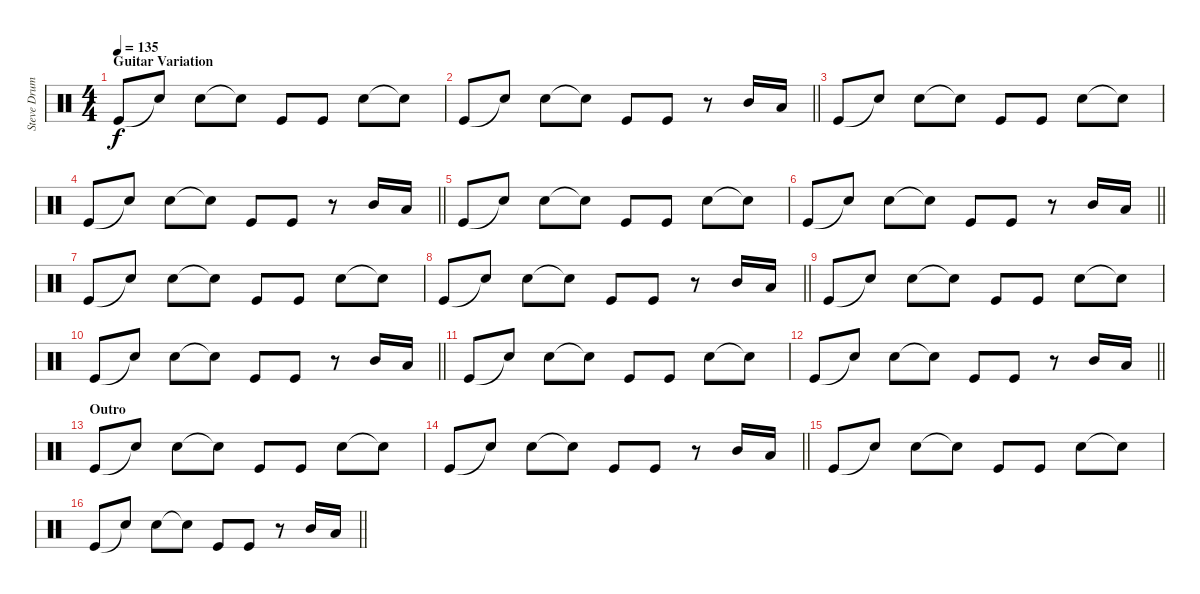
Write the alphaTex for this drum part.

\track ("Steve Drums" "Steve Drum") {instrument percussion}
\staff {score}
\articulation defaults
\ts (4 4)
\section ("" "Guitar Variation")
\tempo 135
\clef neutral
\ks c "Kick (hit)".8{dy f} "Snare (hit)"{t}.8 "Snare (hit) 2".8 "Snare (hit)"{t}.8 "Kick (hit)".8 "Kick (hit)".8 "Snare (hit) 2".8 "Snare (hit)"{t}.8
|
\barLineRight lightlight "Kick (hit)".8 "Snare (hit)"{t}.8 "Snare (hit) 2".8 "Snare (hit)"{t}.8 "Kick (hit)".8 "Kick (hit)".8
r.8 "Mid Tom (hit)".16 "Low Tom (hit)".16 |
"Kick (hit)".8 "Snare (hit)"{t}.8 "Snare (hit) 2".8 "Snare (hit)"{t}.8 "Kick (hit)".8 "Kick (hit)".8 "Snare (hit) 2".8 "Snare (hit)"{t}.8 |
\barLineRight lightlight "Kick (hit)".8 "Snare (hit)"{t}.8 "Snare (hit) 2".8 "Snare (hit)"{t}.8 "Kick (hit)".8 "Kick (hit)".8
r.8 "Mid Tom (hit)".16 "Low Tom (hit)".16 |
"Kick (hit)".8 "Snare (hit)"{t}.8 "Snare (hit) 2".8 "Snare (hit)"{t}.8 "Kick (hit)".8 "Kick (hit)".8 "Snare (hit) 2".8 "Snare (hit)"{t}.8 |
\barLineRight lightlight "Kick (hit)".8 "Snare (hit)"{t}.8 "Snare (hit) 2".8 "Snare (hit)"{t}.8 "Kick (hit)".8 "Kick (hit)".8
r.8 "Mid Tom (hit)".16 "Low Tom (hit)".16 |
"Kick (hit)".8 "Snare (hit)"{t}.8 "Snare (hit) 2".8 "Snare (hit)"{t}.8 "Kick (hit)".8 "Kick (hit)".8 "Snare (hit) 2".8 "Snare (hit)"{t}.8 |
\barLineRight lightlight "Kick (hit)".8 "Snare (hit)"{t}.8 "Snare (hit) 2".8 "Snare (hit)"{t}.8 "Kick (hit)".8 "Kick (hit)".8
r.8 "Mid Tom (hit)".16 "Low Tom (hit)".16 |
"Kick (hit)".8 "Snare (hit)"{t}.8 "Snare (hit) 2".8 "Snare (hit)"{t}.8 "Kick (hit)".8 "Kick (hit)".8 "Snare (hit) 2".8 "Snare (hit)"{t}.8 |
\barLineRight lightlight "Kick (hit)".8 "Snare (hit)"{t}.8 "Snare (hit) 2".8 "Snare (hit)"{t}.8 "Kick (hit)".8 "Kick (hit)".8
r.8 "Mid Tom (hit)".16 "Low Tom (hit)".16 |
"Kick (hit)".8 "Snare (hit)"{t}.8 "Snare (hit) 2".8 "Snare (hit)"{t}.8 "Kick (hit)".8 "Kick (hit)".8 "Snare (hit) 2".8 "Snare (hit)"{t}.8 |
\barLineRight lightlight "Kick (hit)".8 "Snare (hit)"{t}.8 "Snare (hit) 2".8 "Snare (hit)"{t}.8 "Kick (hit)".8 "Kick (hit)".8
r.8 "Mid Tom (hit)".16 "Low Tom (hit)".16 |
\section ("" "Outro")
"Kick (hit)".8 "Snare (hit)"{t}.8 "Snare (hit) 2".8 "Snare (hit)"{t}.8 "Kick (hit)".8 "Kick (hit)".8 "Snare (hit) 2".8 "Snare (hit)"{t}.8 |
\barLineRight lightlight "Kick (hit)".8 "Snare (hit)"{t}.8 "Snare (hit) 2".8 "Snare (hit)"{t}.8 "Kick (hit)".8 "Kick (hit)".8
r.8 "Mid Tom (hit)".16 "Low Tom (hit)".16 |
"Kick (hit)".8 "Snare (hit)"{t}.8 "Snare (hit) 2".8 "Snare (hit)"{t}.8 "Kick (hit)".8 "Kick (hit)".8 "Snare (hit) 2".8 "Snare (hit)"{t}.8 |
\barLineRight lightlight "Kick (hit)".8 "Snare (hit)"{t}.8 "Snare (hit) 2".8 "Snare (hit)"{t}.8 "Kick (hit)".8 "Kick (hit)".8
r.8 "Mid Tom (hit)".16 "Low Tom (hit)".16
